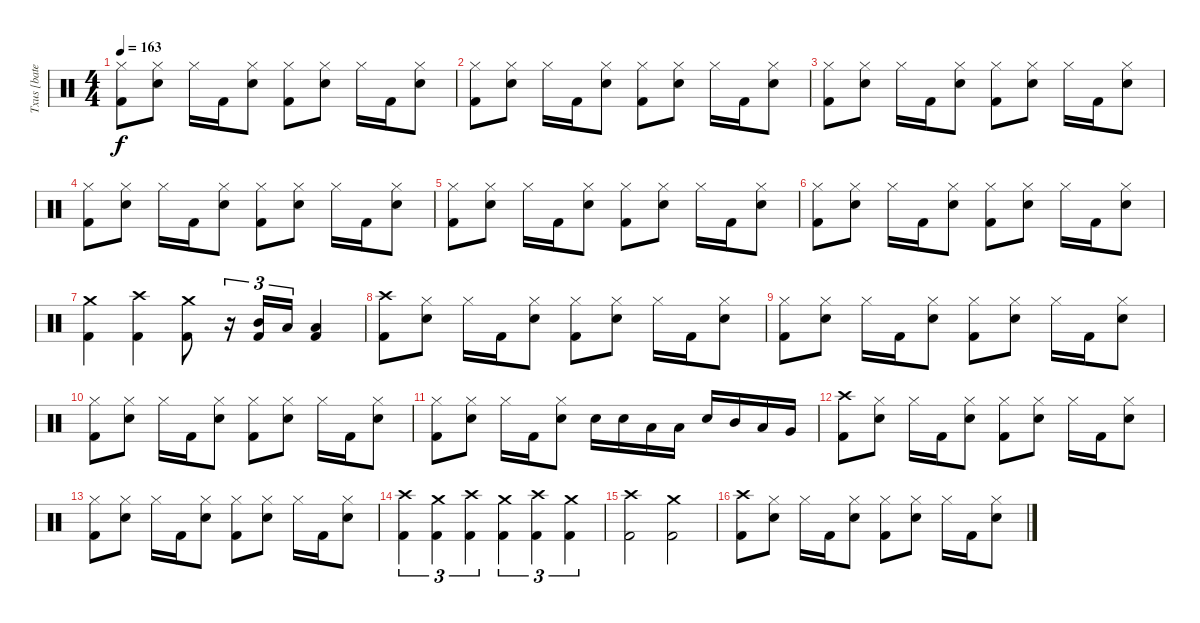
\track ("Txus [bateria]" "Txus [bate") {instrument percussion}
\staff {score}
\articulation defaults
\ts (4 4)
\tempo 163
\clef neutral
\ks c
("Hi-Hat (closed)" "Kick (hit) 2").8{dy f} ("Hi-Hat (closed)" "Snare (hit) 2").8 "Hi-Hat (closed)".16 "Kick (hit) 2".16 ("Hi-Hat (closed)" "Snare (hit) 2").8 ("Hi-Hat (closed)" "Kick (hit) 2").8 ("Hi-Hat (closed)" "Snare (hit) 2").8 "Hi-Hat (closed)".16 "Kick (hit) 2".16 ("Hi-Hat (closed)" "Snare (hit) 2").8 |
("Hi-Hat (closed)" "Kick (hit) 2").8 ("Hi-Hat (closed)" "Snare (hit) 2").8 "Hi-Hat (closed)".16 "Kick (hit) 2".16 ("Hi-Hat (closed)" "Snare (hit) 2").8 ("Hi-Hat (closed)" "Kick (hit) 2").8 ("Hi-Hat (closed)" "Snare (hit) 2").8 "Hi-Hat (closed)".16 "Kick (hit) 2".16 ("Hi-Hat (closed)" "Snare (hit) 2").8 |
("Hi-Hat (closed)" "Kick (hit) 2").8 ("Hi-Hat (closed)" "Snare (hit) 2").8 "Hi-Hat (closed)".16 "Kick (hit) 2".16 ("Hi-Hat (closed)" "Snare (hit) 2").8 ("Hi-Hat (closed)" "Kick (hit) 2").8 ("Hi-Hat (closed)" "Snare (hit) 2").8 "Hi-Hat (closed)".16 "Kick (hit) 2".16 ("Hi-Hat (closed)" "Snare (hit) 2").8 |
("Hi-Hat (closed)" "Kick (hit) 2").8 ("Hi-Hat (closed)" "Snare (hit) 2").8 "Hi-Hat (closed)".16 "Kick (hit) 2".16 ("Hi-Hat (closed)" "Snare (hit) 2").8 ("Hi-Hat (closed)" "Kick (hit) 2").8 ("Hi-Hat (closed)" "Snare (hit) 2").8 "Hi-Hat (closed)".16 "Kick (hit) 2".16 ("Hi-Hat (closed)" "Snare (hit) 2").8 |
("Hi-Hat (closed)" "Kick (hit) 2").8 ("Hi-Hat (closed)" "Snare (hit) 2").8 "Hi-Hat (closed)".16 "Kick (hit) 2".16 ("Hi-Hat (closed)" "Snare (hit) 2").8 ("Hi-Hat (closed)" "Kick (hit) 2").8 ("Hi-Hat (closed)" "Snare (hit) 2").8 "Hi-Hat (closed)".16 "Kick (hit) 2".16 ("Hi-Hat (closed)" "Snare (hit) 2").8 |
("Hi-Hat (closed)" "Kick (hit) 2").8 ("Hi-Hat (closed)" "Snare (hit) 2").8 "Hi-Hat (closed)".16 "Kick (hit) 2".16 ("Hi-Hat (closed)" "Snare (hit) 2").8 ("Hi-Hat (closed)" "Kick (hit) 2").8 ("Hi-Hat (closed)" "Snare (hit) 2").8 "Hi-Hat (closed)".16 "Kick (hit) 2".16 ("Hi-Hat (closed)" "Snare (hit) 2").8 |
("Crash medium (hit)" "Kick (hit) 2").4 ("Crash high (hit)" "Kick (hit) 2").4 ("Crash medium (hit)" "Kick (hit) 2").8 r.16{tu (3 2)} ("Mid Tom (hit)" "Kick (hit) 2").16{tu (3 2)} "Low Tom (hit)".16{tu (3 2)} ("Low Floor Tom (hit)" "Kick (hit) 2").4 |
("Crash high (hit)" "Kick (hit) 2").8 ("Hi-Hat (closed)" "Snare (hit) 2").8 "Hi-Hat (closed)".16 "Kick (hit) 2".16 ("Hi-Hat (closed)" "Snare (hit) 2").8 ("Hi-Hat (closed)" "Kick (hit) 2").8 ("Hi-Hat (closed)" "Snare (hit) 2").8 "Hi-Hat (closed)".16 "Kick (hit) 2".16 ("Hi-Hat (closed)" "Snare (hit) 2").8 |
("Hi-Hat (closed)" "Kick (hit) 2").8 ("Hi-Hat (closed)" "Snare (hit) 2").8 "Hi-Hat (closed)".16 "Kick (hit) 2".16 ("Hi-Hat (closed)" "Snare (hit) 2").8 ("Hi-Hat (closed)" "Kick (hit) 2").8 ("Hi-Hat (closed)" "Snare (hit) 2").8 "Hi-Hat (closed)".16 "Kick (hit) 2".16 ("Hi-Hat (closed)" "Snare (hit) 2").8 |
("Hi-Hat (closed)" "Kick (hit) 2").8 ("Hi-Hat (closed)" "Snare (hit) 2").8 "Hi-Hat (closed)".16 "Kick (hit) 2".16 ("Hi-Hat (closed)" "Snare (hit) 2").8 ("Hi-Hat (closed)" "Kick (hit) 2").8 ("Hi-Hat (closed)" "Snare (hit) 2").8 "Hi-Hat (closed)".16 "Kick (hit) 2".16 ("Hi-Hat (closed)" "Snare (hit) 2").8 |
("Hi-Hat (closed)" "Kick (hit) 2").8 ("Hi-Hat (closed)" "Snare (hit) 2").8 "Hi-Hat (closed)".16 "Kick (hit) 2".16 ("Hi-Hat (closed)" "Snare (hit) 2").8 "Snare (hit) 2".16 "Snare (hit) 2".16 "Low Tom (hit)".16 "Low Tom (hit)".16 "Snare (hit) 2".16 "Mid Tom (hit)".16 "Low Tom (hit)".16 "Very Low Tom (hit)".16 |
("Crash high (hit)" "Kick (hit) 2").8 ("Hi-Hat (closed)" "Snare (hit) 2").8 "Hi-Hat (closed)".16 "Kick (hit) 2".16 ("Hi-Hat (closed)" "Snare (hit) 2").8 ("Hi-Hat (closed)" "Kick (hit) 2").8 ("Hi-Hat (closed)" "Snare (hit) 2").8 "Hi-Hat (closed)".16 "Kick (hit) 2".16 ("Hi-Hat (closed)" "Snare (hit) 2").8 |
("Hi-Hat (closed)" "Kick (hit) 2").8 ("Hi-Hat (closed)" "Snare (hit) 2").8 "Hi-Hat (closed)".16 "Kick (hit) 2".16 ("Hi-Hat (closed)" "Snare (hit) 2").8 ("Hi-Hat (closed)" "Kick (hit) 2").8 ("Hi-Hat (closed)" "Snare (hit) 2").8 "Hi-Hat (closed)".16 "Kick (hit) 2".16 ("Hi-Hat (closed)" "Snare (hit) 2").8 |
("Crash high (hit)" "Kick (hit) 2").4{tu (3 2)} ("Crash medium (hit)" "Kick (hit) 2").4{tu (3 2)} ("Crash high (hit)" "Kick (hit) 2").4{tu (3 2)} ("Crash medium (hit)" "Kick (hit) 2").4{tu (3 2)} ("Crash high (hit)" "Kick (hit) 2").4{tu (3 2)} ("Crash medium (hit)" "Kick (hit) 2").4{tu (3 2)} |
("Crash high (hit)" "Kick (hit) 2").2 ("Crash medium (hit)" "Kick (hit) 2").2 |
("Crash high (hit)" "Kick (hit) 2").8 ("Hi-Hat (closed)" "Snare (hit) 2").8 "Hi-Hat (closed)".16 "Kick (hit) 2".16 ("Hi-Hat (closed)" "Snare (hit) 2").8 ("Hi-Hat (closed)" "Kick (hit) 2").8 ("Hi-Hat (closed)" "Snare (hit) 2").8 "Hi-Hat (closed)".16 "Kick (hit) 2".16 ("Hi-Hat (closed)" "Snare (hit) 2").8
